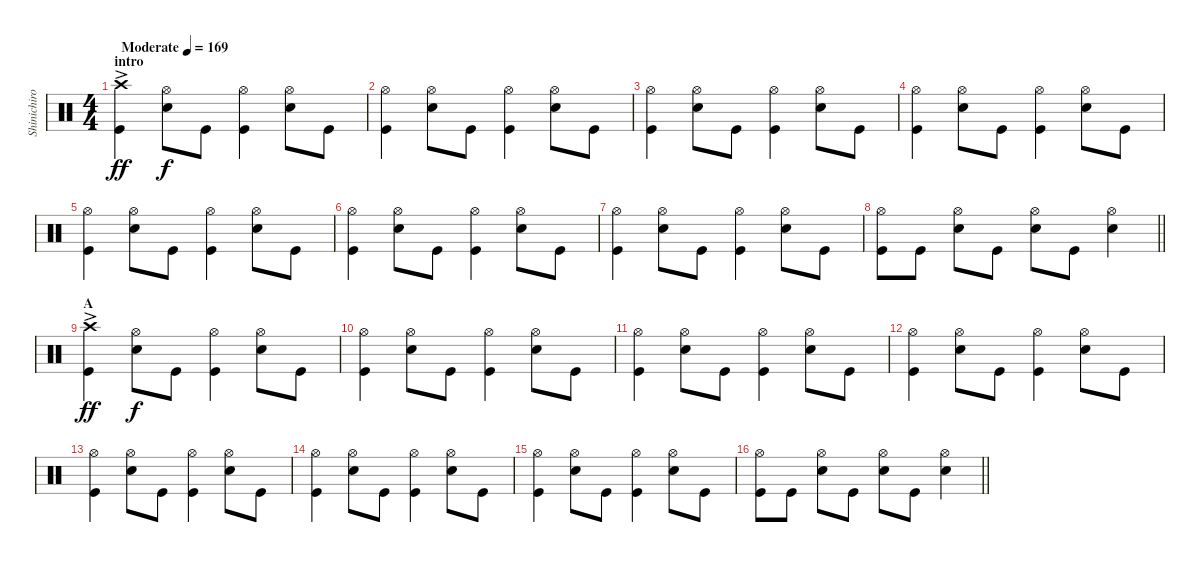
\track ("Shinichiro Sato drums" "Shinichiro") {instrument percussion}
\staff {score}
\articulation defaults
\ts (4 4)
\section ("" "intro")
\tempo (169 "Moderate")
\clef neutral
\ks c
("Crash high (hit)"{ac} "Kick (hit)").4{dy ff} ("Hi-Hat (open)" "Snare (hit) 2").8{dy f} "Kick (hit)".8 ("Hi-Hat (open)" "Kick (hit)").4 ("Hi-Hat (open)" "Snare (hit) 2").8 "Kick (hit)".8 |
("Hi-Hat (open)" "Kick (hit)").4 ("Hi-Hat (open)" "Snare (hit) 2").8 "Kick (hit)".8 ("Hi-Hat (open)" "Kick (hit)").4 ("Hi-Hat (open)" "Snare (hit) 2").8 "Kick (hit)".8 |
("Hi-Hat (open)" "Kick (hit)").4 ("Hi-Hat (open)" "Snare (hit) 2").8 "Kick (hit)".8 ("Hi-Hat (open)" "Kick (hit)").4 ("Hi-Hat (open)" "Snare (hit) 2").8 "Kick (hit)".8 |
("Hi-Hat (open)" "Kick (hit)").4 ("Hi-Hat (open)" "Snare (hit) 2").8 "Kick (hit)".8 ("Hi-Hat (open)" "Kick (hit)").4 ("Hi-Hat (open)" "Snare (hit) 2").8 "Kick (hit)".8 |
("Hi-Hat (open)" "Kick (hit)").4 ("Hi-Hat (open)" "Snare (hit) 2").8 "Kick (hit)".8 ("Hi-Hat (open)" "Kick (hit)").4 ("Hi-Hat (open)" "Snare (hit) 2").8 "Kick (hit)".8 |
("Hi-Hat (open)" "Kick (hit)").4 ("Hi-Hat (open)" "Snare (hit) 2").8 "Kick (hit)".8 ("Hi-Hat (open)" "Kick (hit)").4 ("Hi-Hat (open)" "Snare (hit) 2").8 "Kick (hit)".8 |
("Hi-Hat (open)" "Kick (hit)").4 ("Hi-Hat (open)" "Snare (hit) 2").8 "Kick (hit)".8 ("Hi-Hat (open)" "Kick (hit)").4 ("Hi-Hat (open)" "Snare (hit) 2").8 "Kick (hit)".8 |
\barLineRight lightlight
("Hi-Hat (open)" "Kick (hit)").8 "Kick (hit)".8 ("Hi-Hat (open)" "Snare (hit) 2").8 "Kick (hit)".8 ("Hi-Hat (open)" "Snare (hit) 2").8 "Kick (hit)".8 ("Hi-Hat (open)" "Snare (hit) 2").4 |
\section ("" "A")
("Crash high (hit)"{ac} "Kick (hit)").4{dy ff} ("Hi-Hat (open)" "Snare (hit) 2").8{dy f} "Kick (hit)".8 ("Hi-Hat (open)" "Kick (hit)").4 ("Hi-Hat (open)" "Snare (hit) 2").8 "Kick (hit)".8 |
("Hi-Hat (open)" "Kick (hit)").4 ("Hi-Hat (open)" "Snare (hit) 2").8 "Kick (hit)".8 ("Hi-Hat (open)" "Kick (hit)").4 ("Hi-Hat (open)" "Snare (hit) 2").8 "Kick (hit)".8 |
("Hi-Hat (open)" "Kick (hit)").4 ("Hi-Hat (open)" "Snare (hit) 2").8 "Kick (hit)".8 ("Hi-Hat (open)" "Kick (hit)").4 ("Hi-Hat (open)" "Snare (hit) 2").8 "Kick (hit)".8 |
("Hi-Hat (open)" "Kick (hit)").4 ("Hi-Hat (open)" "Snare (hit) 2").8 "Kick (hit)".8 ("Hi-Hat (open)" "Kick (hit)").4 ("Hi-Hat (open)" "Snare (hit) 2").8 "Kick (hit)".8 |
("Hi-Hat (open)" "Kick (hit)").4 ("Hi-Hat (open)" "Snare (hit) 2").8 "Kick (hit)".8 ("Hi-Hat (open)" "Kick (hit)").4 ("Hi-Hat (open)" "Snare (hit) 2").8 "Kick (hit)".8 |
("Hi-Hat (open)" "Kick (hit)").4 ("Hi-Hat (open)" "Snare (hit) 2").8 "Kick (hit)".8 ("Hi-Hat (open)" "Kick (hit)").4 ("Hi-Hat (open)" "Snare (hit) 2").8 "Kick (hit)".8 |
("Hi-Hat (open)" "Kick (hit)").4 ("Hi-Hat (open)" "Snare (hit) 2").8 "Kick (hit)".8 ("Hi-Hat (open)" "Kick (hit)").4 ("Hi-Hat (open)" "Snare (hit) 2").8 "Kick (hit)".8 |
\barLineRight lightlight
("Hi-Hat (open)" "Kick (hit)").8 "Kick (hit)".8 ("Hi-Hat (open)" "Snare (hit) 2").8 "Kick (hit)".8 ("Hi-Hat (open)" "Snare (hit) 2").8 "Kick (hit)".8 ("Hi-Hat (open)" "Snare (hit) 2").4
